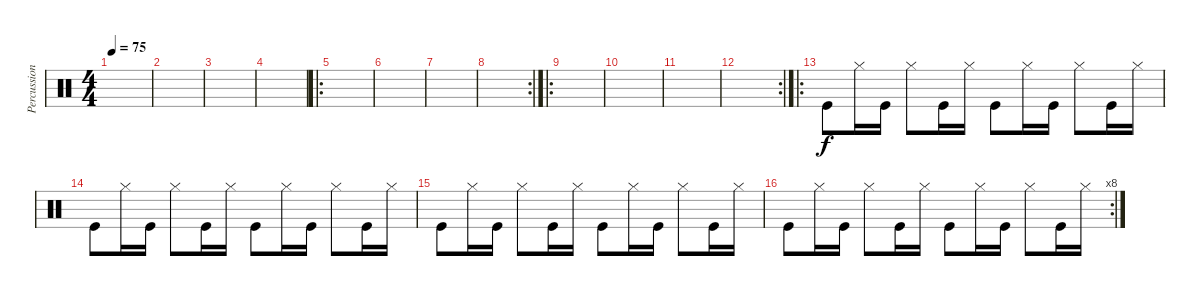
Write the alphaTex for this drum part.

\track ("Percussions" "Percussion") {instrument percussion}
\staff {score}
\articulation defaults
\ts (4 4)
\tempo 75
\clef neutral
\ks c
|
|
|
|
\ro
|
|
|
\rc 2
|
\ro
|
|
|
\rc 2
|
\ro "Kick (hit)".8 "Hi-Hat (closed)".16 "Kick (hit)".16 "Hi-Hat (closed)".8 "Kick (hit)".16 "Hi-Hat (closed)".16 "Kick (hit)".8 "Hi-Hat (closed)".16 "Kick (hit)".16 "Hi-Hat (closed)".8 "Kick (hit)".16 "Hi-Hat (closed)".16
|
"Kick (hit)".8 "Hi-Hat (closed)".16 "Kick (hit)".16 "Hi-Hat (closed)".8 "Kick (hit)".16 "Hi-Hat (closed)".16 "Kick (hit)".8 "Hi-Hat (closed)".16 "Kick (hit)".16 "Hi-Hat (closed)".8 "Kick (hit)".16 "Hi-Hat (closed)".16 |
"Kick (hit)".8 "Hi-Hat (closed)".16 "Kick (hit)".16 "Hi-Hat (closed)".8 "Kick (hit)".16 "Hi-Hat (closed)".16 "Kick (hit)".8 "Hi-Hat (closed)".16 "Kick (hit)".16 "Hi-Hat (closed)".8 "Kick (hit)".16 "Hi-Hat (closed)".16 |
\rc 8 "Kick (hit)".8 "Hi-Hat (closed)".16 "Kick (hit)".16 "Hi-Hat (closed)".8 "Kick (hit)".16 "Hi-Hat (closed)".16 "Kick (hit)".8 "Hi-Hat (closed)".16 "Kick (hit)".16 "Hi-Hat (closed)".8 "Kick (hit)".16 "Hi-Hat (closed)".16
